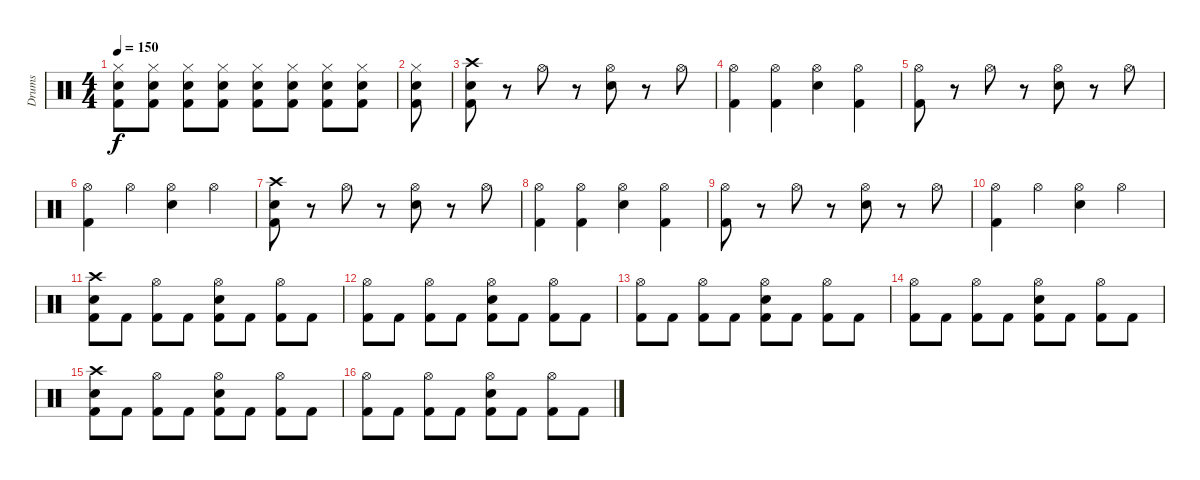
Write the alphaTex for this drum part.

\track ("Drums" "Drums") {instrument percussion}
\staff {score}
\articulation defaults
\ts (4 4)
\tempo 150
\clef neutral
\ks c
("Hi-Hat (closed)" "Electric Snare (hit)" "Kick (hit) 2").8{dy f} ("Hi-Hat (closed)" "Electric Snare (hit)" "Kick (hit) 2").8 ("Hi-Hat (closed)" "Electric Snare (hit)" "Kick (hit) 2").8 ("Hi-Hat (closed)" "Electric Snare (hit)" "Kick (hit) 2").8 ("Hi-Hat (closed)" "Electric Snare (hit)" "Kick (hit) 2").8 ("Hi-Hat (closed)" "Electric Snare (hit)" "Kick (hit) 2").8 ("Hi-Hat (closed)" "Electric Snare (hit)" "Kick (hit) 2").8 ("Hi-Hat (closed)" "Electric Snare (hit)" "Kick (hit) 2").8 |
("Hi-Hat (closed)" "Electric Snare (hit)" "Kick (hit) 2").8 |
("Crash high (hit)" "Electric Snare (hit)" "Kick (hit) 2").8 r.8 "Hi-Hat (open)".8 r.8 ("Hi-Hat (open)" "Electric Snare (hit)").8 r.8 "Hi-Hat (open)".8 |
("Hi-Hat (open)" "Kick (hit) 2").4 ("Hi-Hat (open)" "Kick (hit) 2").4 ("Hi-Hat (open)" "Electric Snare (hit)").4 ("Hi-Hat (open)" "Kick (hit) 2").4 |
("Hi-Hat (open)" "Kick (hit) 2").8 r.8 "Hi-Hat (open)".8 r.8 ("Hi-Hat (open)" "Electric Snare (hit)").8 r.8 "Hi-Hat (open)".8 |
("Hi-Hat (open)" "Kick (hit) 2").4 "Hi-Hat (open)".4 ("Hi-Hat (open)" "Electric Snare (hit)").4 "Hi-Hat (open)".4 |
("Crash high (hit)" "Electric Snare (hit)" "Kick (hit) 2").8 r.8 "Hi-Hat (open)".8 r.8 ("Hi-Hat (open)" "Electric Snare (hit)").8 r.8 "Hi-Hat (open)".8 |
("Hi-Hat (open)" "Kick (hit) 2").4 ("Hi-Hat (open)" "Kick (hit) 2").4 ("Hi-Hat (open)" "Electric Snare (hit)").4 ("Hi-Hat (open)" "Kick (hit) 2").4 |
("Hi-Hat (open)" "Kick (hit) 2").8 r.8 "Hi-Hat (open)".8 r.8 ("Hi-Hat (open)" "Electric Snare (hit)").8 r.8 "Hi-Hat (open)".8 |
("Hi-Hat (open)" "Kick (hit) 2").4 "Hi-Hat (open)".4 ("Hi-Hat (open)" "Electric Snare (hit)").4 "Hi-Hat (open)".4 |
("Crash high (hit)" "Electric Snare (hit)" "Kick (hit) 2").8 "Kick (hit) 2".8 ("Hi-Hat (open)" "Kick (hit) 2").8 "Kick (hit) 2".8 ("Hi-Hat (open)" "Electric Snare (hit)" "Kick (hit) 2").8 "Kick (hit) 2".8 ("Hi-Hat (open)" "Kick (hit) 2").8 "Kick (hit) 2".8 |
("Hi-Hat (open)" "Kick (hit) 2").8 "Kick (hit) 2".8 ("Hi-Hat (open)" "Kick (hit) 2").8 "Kick (hit) 2".8 ("Hi-Hat (open)" "Electric Snare (hit)" "Kick (hit) 2").8 "Kick (hit) 2".8 ("Hi-Hat (open)" "Kick (hit) 2").8 "Kick (hit) 2".8 |
("Hi-Hat (open)" "Kick (hit) 2").8 "Kick (hit) 2".8 ("Hi-Hat (open)" "Kick (hit) 2").8 "Kick (hit) 2".8 ("Hi-Hat (open)" "Electric Snare (hit)" "Kick (hit) 2").8 "Kick (hit) 2".8 ("Hi-Hat (open)" "Kick (hit) 2").8 "Kick (hit) 2".8 |
("Hi-Hat (open)" "Kick (hit) 2").8 "Kick (hit) 2".8 ("Hi-Hat (open)" "Kick (hit) 2").8 "Kick (hit) 2".8 ("Hi-Hat (open)" "Electric Snare (hit)" "Kick (hit) 2").8 "Kick (hit) 2".8 ("Hi-Hat (open)" "Kick (hit) 2").8 "Kick (hit) 2".8 |
("Crash high (hit)" "Electric Snare (hit)" "Kick (hit) 2").8 "Kick (hit) 2".8 ("Hi-Hat (open)" "Kick (hit) 2").8 "Kick (hit) 2".8 ("Hi-Hat (open)" "Electric Snare (hit)" "Kick (hit) 2").8 "Kick (hit) 2".8 ("Hi-Hat (open)" "Kick (hit) 2").8 "Kick (hit) 2".8 |
("Hi-Hat (open)" "Kick (hit) 2").8 "Kick (hit) 2".8 ("Hi-Hat (open)" "Kick (hit) 2").8 "Kick (hit) 2".8 ("Hi-Hat (open)" "Electric Snare (hit)" "Kick (hit) 2").8 "Kick (hit) 2".8 ("Hi-Hat (open)" "Kick (hit) 2").8 "Kick (hit) 2".8
